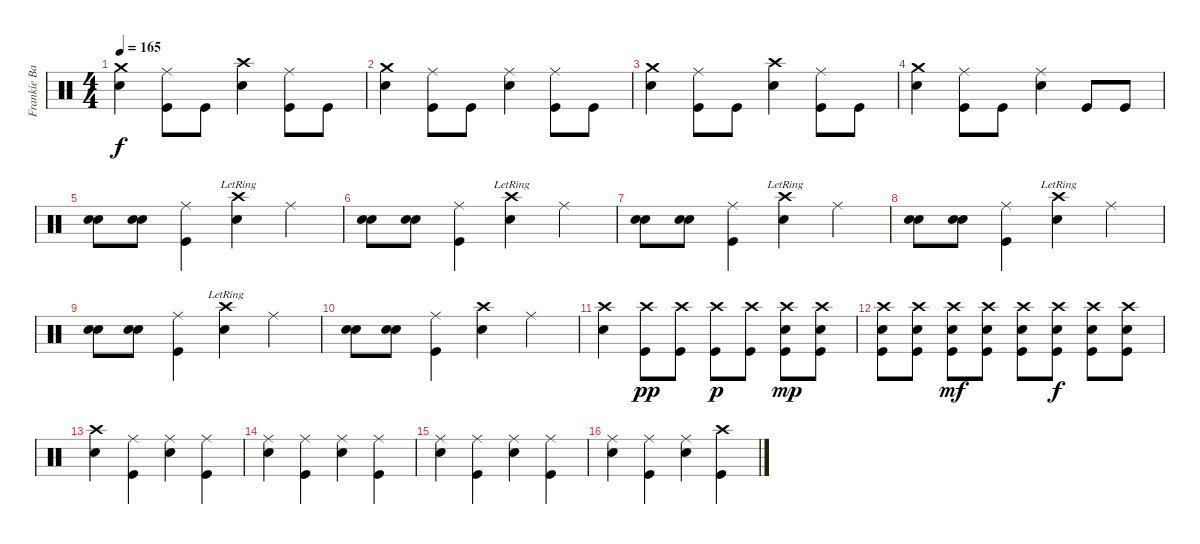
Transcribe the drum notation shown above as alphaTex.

\track ("Frankie Banali/Drums" "Frankie Ba") {instrument percussion}
\staff {score}
\articulation defaults
\ts (4 4)
\tempo 165
\clef neutral
\ks c
("Snare (hit) 2" "Crash medium (hit)").4{dy f} ("Kick (hit)" "Ride (middle)").8 "Kick (hit)".8 ("Snare (hit) 2" "Crash high (hit)").4 ("Kick (hit)" "Ride (middle)").8 "Kick (hit)".8 |
("Snare (hit) 2" "Crash medium (hit)").4 ("Kick (hit)" "Ride (middle)").8 "Kick (hit)".8 ("Snare (hit) 2" "Ride (middle)").4 ("Kick (hit)" "Ride (middle)").8 "Kick (hit)".8 |
("Snare (hit) 2" "Crash medium (hit)").4 ("Kick (hit)" "Ride (middle)").8 "Kick (hit)".8 ("Snare (hit) 2" "Crash high (hit)").4 ("Kick (hit)" "Ride (middle)").8 "Kick (hit)".8 |
("Snare (hit) 2" "Crash medium (hit)").4 ("Kick (hit)" "Ride (middle)").8 "Kick (hit)".8 ("Snare (hit) 2" "Ride (middle)").4 "Kick (hit)".8 "Kick (hit)".8 |
("Snare (hit) 2" "Snare (hit) 2").8 ("Snare (hit) 2" "Snare (hit) 2").8 ("Kick (hit)" "Ride (middle)").4 ("Snare (hit) 2" "Crash high (hit)"{lr}).4 "Ride (middle)".4 |
("Snare (hit) 2" "Snare (hit) 2").8 ("Snare (hit) 2" "Snare (hit) 2").8 ("Kick (hit)" "Ride (middle)").4 ("Snare (hit) 2" "Crash high (hit)"{lr}).4 "Ride (middle)".4 |
("Snare (hit) 2" "Snare (hit) 2").8 ("Snare (hit) 2" "Snare (hit) 2").8 ("Kick (hit)" "Ride (middle)").4 ("Snare (hit) 2" "Crash high (hit)"{lr}).4 "Ride (middle)".4 |
("Snare (hit) 2" "Snare (hit) 2").8 ("Snare (hit) 2" "Snare (hit) 2").8 ("Ride (middle)" "Kick (hit)").4 ("Snare (hit) 2" "Crash high (hit)"{lr}).4 "Ride (middle)".4 |
("Snare (hit) 2" "Snare (hit) 2").8 ("Snare (hit) 2" "Snare (hit) 2").8 ("Kick (hit)" "Ride (middle)").4 ("Snare (hit) 2" "Crash high (hit)"{lr}).4 "Ride (middle)".4 |
("Snare (hit) 2" "Snare (hit) 2").8 ("Snare (hit) 2" "Snare (hit) 2").8 ("Kick (hit)" "Ride (middle)").4 ("Snare (hit) 2" "Crash high (hit)").4 "Ride (middle)".4 |
("Snare (hit) 2" "Crash high (hit)").4 ("Kick (hit)" "Crash high (hit)").8{dy pp} ("Kick (hit)" "Crash high (hit)").8 ("Kick (hit)" "Crash high (hit)").8{dy p} ("Kick (hit)" "Crash high (hit)").8 ("Snare (hit) 2" "Kick (hit)" "Crash high (hit)").8{dy mp} ("Snare (hit) 2" "Kick (hit)" "Crash high (hit)").8 |
("Snare (hit) 2" "Kick (hit)" "Crash high (hit)").8 ("Snare (hit) 2" "Kick (hit)" "Crash high (hit)").8 ("Snare (hit) 2" "Kick (hit)" "Crash high (hit)").8{dy mf} ("Snare (hit) 2" "Kick (hit)" "Crash high (hit)").8 ("Snare (hit) 2" "Kick (hit)" "Crash high (hit)").8 ("Snare (hit) 2" "Kick (hit)" "Crash high (hit)").8{dy f} ("Snare (hit) 2" "Kick (hit)" "Crash high (hit)").8 ("Snare (hit) 2" "Kick (hit)" "Crash high (hit)").8 |
("Snare (hit) 2" "Crash high (hit)").4 ("Kick (hit)" "Ride (middle)").4 ("Snare (hit) 2" "Ride (middle)").4 ("Kick (hit)" "Ride (middle)").4 |
("Snare (hit) 2" "Ride (middle)").4 ("Kick (hit)" "Ride (middle)").4 ("Snare (hit) 2" "Ride (middle)").4 ("Kick (hit)" "Ride (middle)").4 |
("Snare (hit) 2" "Ride (middle)").4 ("Kick (hit)" "Ride (middle)").4 ("Snare (hit) 2" "Ride (middle)").4 ("Kick (hit)" "Ride (middle)").4 |
("Snare (hit) 2" "Ride (middle)").4 ("Kick (hit)" "Ride (middle)").4 ("Snare (hit) 2" "Ride (middle)").4 ("Kick (hit)" "Crash high (hit)").4
